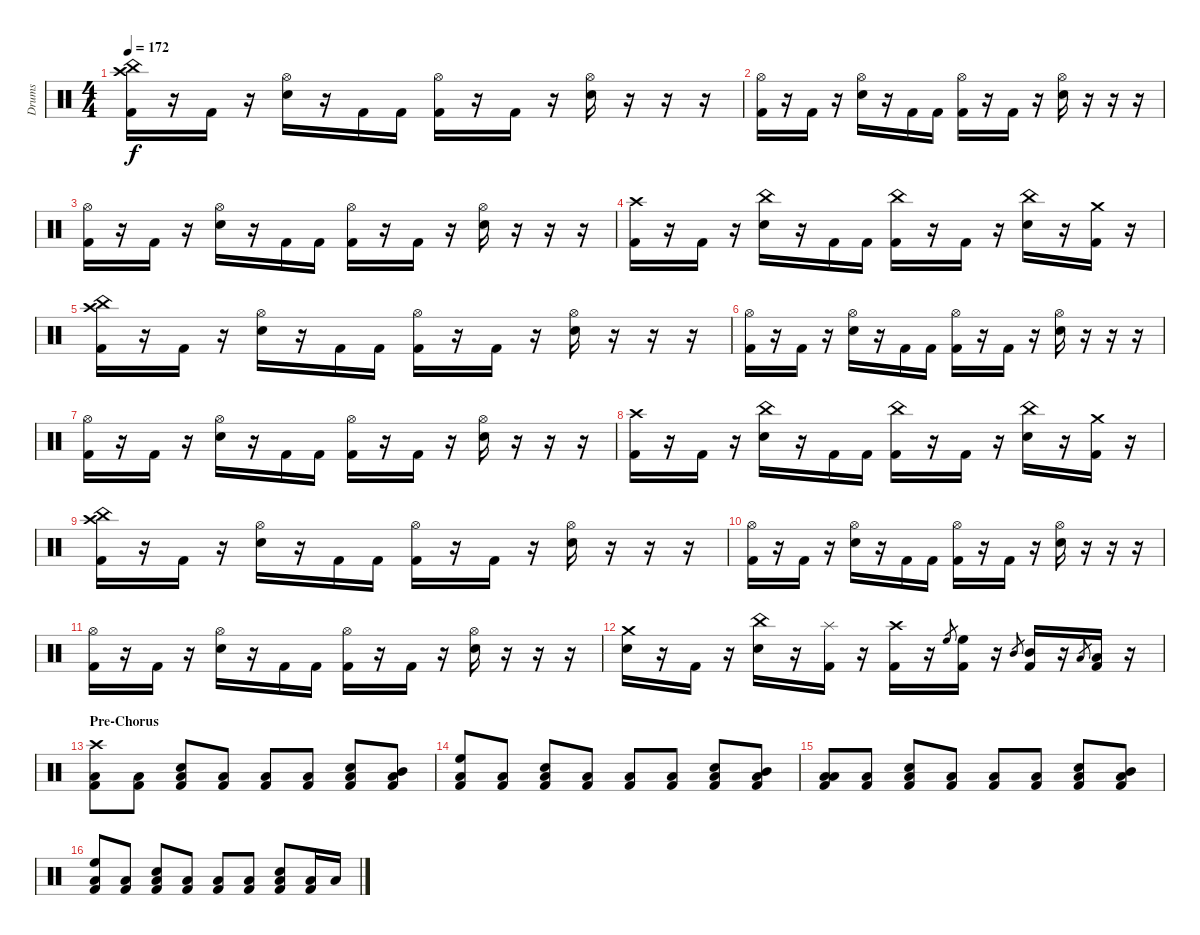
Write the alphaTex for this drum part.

\track ("Drums" "Drums") {instrument percussion}
\staff {score}
\articulation defaults
\ts (4 4)
\tempo 172
\clef neutral
\ks c
("Crash high (hit)" "China (hit)" "Kick (hit) 2").16{dy f} r.16 "Kick (hit) 2".16 r.16 ("Hi-Hat (open)" "Electric Snare (hit)").16 r.16 "Kick (hit) 2".16 "Kick (hit) 2".16 ("Hi-Hat (open)" "Kick (hit) 2").16 r.16 "Kick (hit) 2".16 r.16 ("Hi-Hat (open)" "Electric Snare (hit)").16 r.16 r.16 r.16 |
("Hi-Hat (open)" "Kick (hit) 2").16 r.16 "Kick (hit) 2".16 r.16 ("Hi-Hat (open)" "Electric Snare (hit)").16 r.16 "Kick (hit) 2".16 "Kick (hit) 2".16 ("Hi-Hat (open)" "Kick (hit) 2").16 r.16 "Kick (hit) 2".16 r.16 ("Hi-Hat (open)" "Electric Snare (hit)").16 r.16 r.16 r.16 |
("Hi-Hat (open)" "Kick (hit) 2").16 r.16 "Kick (hit) 2".16 r.16 ("Hi-Hat (open)" "Electric Snare (hit)").16 r.16 "Kick (hit) 2".16 "Kick (hit) 2".16 ("Hi-Hat (open)" "Kick (hit) 2").16 r.16 "Kick (hit) 2".16 r.16 ("Hi-Hat (open)" "Electric Snare (hit)").16 r.16 r.16 r.16 |
("Crash high (hit)" "Kick (hit) 2").16 r.16 "Kick (hit) 2".16 r.16 ("China (hit)" "Electric Snare (hit)").16 r.16 "Kick (hit) 2".16 "Kick (hit) 2".16 ("China (hit)" "Kick (hit) 2").16 r.16 "Kick (hit) 2".16 r.16 ("China (hit)" "Electric Snare (hit)").16 r.16 ("Crash medium (hit)" "Kick (hit) 2").16 r.16 |
("Crash high (hit)" "China (hit)" "Kick (hit) 2").16 r.16 "Kick (hit) 2".16 r.16 ("Hi-Hat (open)" "Electric Snare (hit)").16 r.16 "Kick (hit) 2".16 "Kick (hit) 2".16 ("Hi-Hat (open)" "Kick (hit) 2").16 r.16 "Kick (hit) 2".16 r.16 ("Hi-Hat (open)" "Electric Snare (hit)").16 r.16 r.16 r.16 |
("Hi-Hat (open)" "Kick (hit) 2").16 r.16 "Kick (hit) 2".16 r.16 ("Hi-Hat (open)" "Electric Snare (hit)").16 r.16 "Kick (hit) 2".16 "Kick (hit) 2".16 ("Hi-Hat (open)" "Kick (hit) 2").16 r.16 "Kick (hit) 2".16 r.16 ("Hi-Hat (open)" "Electric Snare (hit)").16 r.16 r.16 r.16 |
("Hi-Hat (open)" "Kick (hit) 2").16 r.16 "Kick (hit) 2".16 r.16 ("Hi-Hat (open)" "Electric Snare (hit)").16 r.16 "Kick (hit) 2".16 "Kick (hit) 2".16 ("Hi-Hat (open)" "Kick (hit) 2").16 r.16 "Kick (hit) 2".16 r.16 ("Hi-Hat (open)" "Electric Snare (hit)").16 r.16 r.16 r.16 |
("Crash high (hit)" "Kick (hit) 2").16 r.16 "Kick (hit) 2".16 r.16 ("China (hit)" "Electric Snare (hit)").16 r.16 "Kick (hit) 2".16 "Kick (hit) 2".16 ("China (hit)" "Kick (hit) 2").16 r.16 "Kick (hit) 2".16 r.16 ("China (hit)" "Electric Snare (hit)").16 r.16 ("Crash medium (hit)" "Kick (hit) 2").16 r.16 |
("Crash high (hit)" "China (hit)" "Kick (hit) 2").16 r.16 "Kick (hit) 2".16 r.16 ("Hi-Hat (open)" "Electric Snare (hit)").16 r.16 "Kick (hit) 2".16 "Kick (hit) 2".16 ("Hi-Hat (open)" "Kick (hit) 2").16 r.16 "Kick (hit) 2".16 r.16 ("Hi-Hat (open)" "Electric Snare (hit)").16 r.16 r.16 r.16 |
("Hi-Hat (open)" "Kick (hit) 2").16 r.16 "Kick (hit) 2".16 r.16 ("Hi-Hat (open)" "Electric Snare (hit)").16 r.16 "Kick (hit) 2".16 "Kick (hit) 2".16 ("Hi-Hat (open)" "Kick (hit) 2").16 r.16 "Kick (hit) 2".16 r.16 ("Hi-Hat (open)" "Electric Snare (hit)").16 r.16 r.16 r.16 |
("Hi-Hat (open)" "Kick (hit) 2").16 r.16 "Kick (hit) 2".16 r.16 ("Hi-Hat (open)" "Electric Snare (hit)").16 r.16 "Kick (hit) 2".16 "Kick (hit) 2".16 ("Hi-Hat (open)" "Kick (hit) 2").16 r.16 "Kick (hit) 2".16 r.16 ("Hi-Hat (open)" "Electric Snare (hit)").16 r.16 r.16 r.16 |
("Crash medium (hit)" "Electric Snare (hit)").16 r.16 "Kick (hit) 2".16 r.16 ("China (hit)" "Electric Snare (hit)").16 r.16 ("Splash (hit)" "Kick (hit) 2").16 r.16 ("Crash high (hit)" "Kick (hit) 2").16 r.16 "High Floor Tom (hit)".8{gr} ("High Floor Tom (hit)" "Kick (hit) 2").16 r.16 "Mid Tom (hit)".8{gr} ("Mid Tom (hit)" "Kick (hit) 2").16 r.16 "Low Tom (hit)".8{gr} ("Low Tom (hit)" "Kick (hit) 2").16 r.16 |
\section ("" "Pre-Chorus")
("Crash high (hit)" "Low Tom (hit)" "Kick (hit) 2").8 ("Low Tom (hit)" "Kick (hit) 2").8 ("Electric Snare (hit)" "Low Tom (hit)" "Kick (hit) 2").8 ("Low Tom (hit)" "Kick (hit) 2").8 ("Low Tom (hit)" "Kick (hit) 2").8 ("Low Tom (hit)" "Kick (hit) 2").8 ("Electric Snare (hit)" "Low Tom (hit)" "Kick (hit) 2").8 ("Mid Tom (hit)" "Low Tom (hit)" "Kick (hit) 2").8 |
("High Floor Tom (hit)" "Low Tom (hit)" "Kick (hit) 2").8 ("Low Tom (hit)" "Kick (hit) 2").8 ("Electric Snare (hit)" "Low Tom (hit)" "Kick (hit) 2").8 ("Low Tom (hit)" "Kick (hit) 2").8 ("Low Tom (hit)" "Kick (hit) 2").8 ("Low Tom (hit)" "Kick (hit) 2").8 ("Electric Snare (hit)" "Low Tom (hit)" "Kick (hit) 2").8 ("Mid Tom (hit)" "Low Tom (hit)" "Kick (hit) 2").8 |
("Low Tom (hit)" "Low Floor Tom (hit)" "Kick (hit) 2").8 ("Low Tom (hit)" "Kick (hit) 2").8 ("Electric Snare (hit)" "Low Tom (hit)" "Kick (hit) 2").8 ("Low Tom (hit)" "Kick (hit) 2").8 ("Low Tom (hit)" "Kick (hit) 2").8 ("Low Tom (hit)" "Kick (hit) 2").8 ("Electric Snare (hit)" "Low Tom (hit)" "Kick (hit) 2").8 ("Mid Tom (hit)" "Low Tom (hit)" "Kick (hit) 2").8 |
("High Floor Tom (hit)" "Low Tom (hit)" "Kick (hit) 2").8 ("Low Tom (hit)" "Kick (hit) 2").8 ("Electric Snare (hit)" "Low Tom (hit)" "Kick (hit) 2").8 ("Low Tom (hit)" "Kick (hit) 2").8 ("Low Tom (hit)" "Kick (hit) 2").8 ("Low Tom (hit)" "Kick (hit) 2").8 ("Electric Snare (hit)" "Low Tom (hit)" "Kick (hit) 2").8 ("Low Tom (hit)" "Kick (hit) 2").16 "Low Tom (hit)".16
